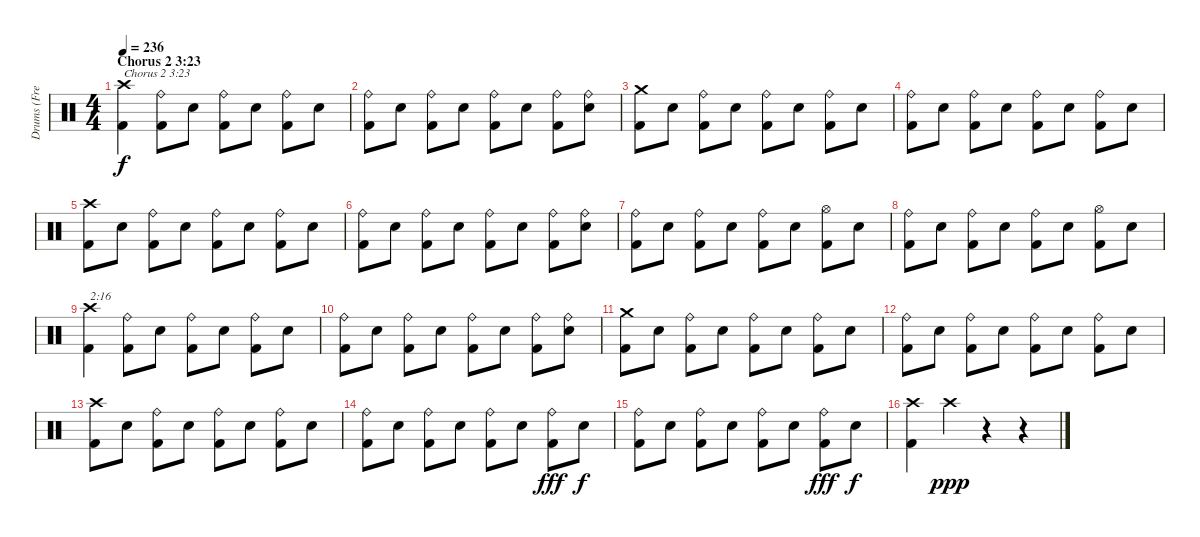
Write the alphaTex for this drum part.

\track ("Drums (Fred Estby)" "Drums (Fre") {instrument percussion}
\staff {score}
\articulation defaults
\ts (4 4)
\section ("" "Chorus 2 3:23")
\tempo 236
\clef neutral
\ks c
("Kick (hit) 2" "Crash high (hit)").4{txt "Chorus 2 3:23" dy f} ("Kick (hit) 2" "Ride (bell)").8 "Electric Snare (hit)".8 ("Kick (hit) 2" "Ride (bell)").8 "Electric Snare (hit)".8 ("Kick (hit) 2" "Ride (bell)").8 "Electric Snare (hit)".8 |
("Kick (hit) 2" "Ride (bell)").8 "Electric Snare (hit)".8 ("Kick (hit) 2" "Ride (bell)").8 "Electric Snare (hit)".8 ("Kick (hit) 2" "Ride (bell)").8 "Electric Snare (hit)".8 ("Kick (hit) 2" "Ride (bell)").8 ("Electric Snare (hit)" "Ride (bell)").8 |
("Kick (hit) 2" "Crash medium (hit)").8 "Electric Snare (hit)".8 ("Kick (hit) 2" "Ride (bell)").8 "Electric Snare (hit)".8 ("Kick (hit) 2" "Ride (bell)").8 "Electric Snare (hit)".8 ("Kick (hit) 2" "Ride (bell)").8 "Electric Snare (hit)".8 |
("Kick (hit) 2" "Ride (bell)").8 "Electric Snare (hit)".8 ("Kick (hit) 2" "Ride (bell)").8 "Electric Snare (hit)".8 ("Kick (hit) 2" "Ride (bell)").8 "Electric Snare (hit)".8 ("Kick (hit) 2" "Ride (bell)").8 "Electric Snare (hit)".8 |
("Kick (hit) 2" "Crash high (hit)").8 "Electric Snare (hit)".8 ("Kick (hit) 2" "Ride (bell)").8 "Electric Snare (hit)".8 ("Kick (hit) 2" "Ride (bell)").8 "Electric Snare (hit)".8 ("Kick (hit) 2" "Ride (bell)").8 "Electric Snare (hit)".8 |
("Kick (hit) 2" "Ride (bell)").8 "Electric Snare (hit)".8 ("Kick (hit) 2" "Ride (bell)").8 "Electric Snare (hit)".8 ("Kick (hit) 2" "Ride (bell)").8 "Electric Snare (hit)".8 ("Kick (hit) 2" "Ride (bell)").8 ("Electric Snare (hit)" "Ride (bell)").8 |
("Kick (hit) 2" "Ride (bell)").8 "Electric Snare (hit)".8 ("Kick (hit) 2" "Ride (bell)").8 "Electric Snare (hit)".8 ("Kick (hit) 2" "Ride (bell)").8 "Electric Snare (hit)".8 ("Kick (hit) 2" "Hi-Hat (open)").8 "Electric Snare (hit)".8 |
("Kick (hit) 2" "Ride (bell)").8 "Electric Snare (hit)".8 ("Kick (hit) 2" "Ride (bell)").8 "Electric Snare (hit)".8 ("Kick (hit) 2" "Ride (bell)").8 "Electric Snare (hit)".8 ("Kick (hit) 2" "Hi-Hat (open)").8 "Electric Snare (hit)".8 |
("Kick (hit) 2" "Crash high (hit)").4{txt "2:16"} ("Kick (hit) 2" "Ride (bell)").8 "Electric Snare (hit)".8 ("Kick (hit) 2" "Ride (bell)").8 "Electric Snare (hit)".8 ("Kick (hit) 2" "Ride (bell)").8 "Electric Snare (hit)".8 |
("Kick (hit) 2" "Ride (bell)").8 "Electric Snare (hit)".8 ("Kick (hit) 2" "Ride (bell)").8 "Electric Snare (hit)".8 ("Kick (hit) 2" "Ride (bell)").8 "Electric Snare (hit)".8 ("Kick (hit) 2" "Ride (bell)").8 ("Electric Snare (hit)" "Ride (bell)").8 |
("Kick (hit) 2" "Crash medium (hit)").8 "Electric Snare (hit)".8 ("Kick (hit) 2" "Ride (bell)").8 "Electric Snare (hit)".8 ("Kick (hit) 2" "Ride (bell)").8 "Electric Snare (hit)".8 ("Kick (hit) 2" "Ride (bell)").8 "Electric Snare (hit)".8 |
("Kick (hit) 2" "Ride (bell)").8 "Electric Snare (hit)".8 ("Kick (hit) 2" "Ride (bell)").8 "Electric Snare (hit)".8 ("Kick (hit) 2" "Ride (bell)").8 "Electric Snare (hit)".8 ("Kick (hit) 2" "Ride (bell)").8 "Electric Snare (hit)".8 |
("Kick (hit) 2" "Crash high (hit)").8 "Electric Snare (hit)".8 ("Kick (hit) 2" "Ride (bell)").8 "Electric Snare (hit)".8 ("Kick (hit) 2" "Ride (bell)").8 "Electric Snare (hit)".8 ("Kick (hit) 2" "Ride (bell)").8 "Electric Snare (hit)".8 |
("Kick (hit) 2" "Ride (bell)").8 "Electric Snare (hit)".8 ("Kick (hit) 2" "Ride (bell)").8 "Electric Snare (hit)".8 ("Kick (hit) 2" "Ride (bell)").8 "Electric Snare (hit)".8 ("Kick (hit) 2" "Ride (bell)").8{dy fff} "Electric Snare (hit)".8{dy f} |
("Kick (hit) 2" "Ride (bell)").8 "Electric Snare (hit)".8 ("Kick (hit) 2" "Ride (bell)").8 "Electric Snare (hit)".8 ("Kick (hit) 2" "Ride (bell)").8 "Electric Snare (hit)".8 ("Kick (hit) 2" "Ride (bell)").8{dy fff} "Electric Snare (hit)".8{dy f} |
("Kick (hit) 2" "Crash high (hit)").4 "Crash high (hit)".4{dy ppp} r.4 r.4
